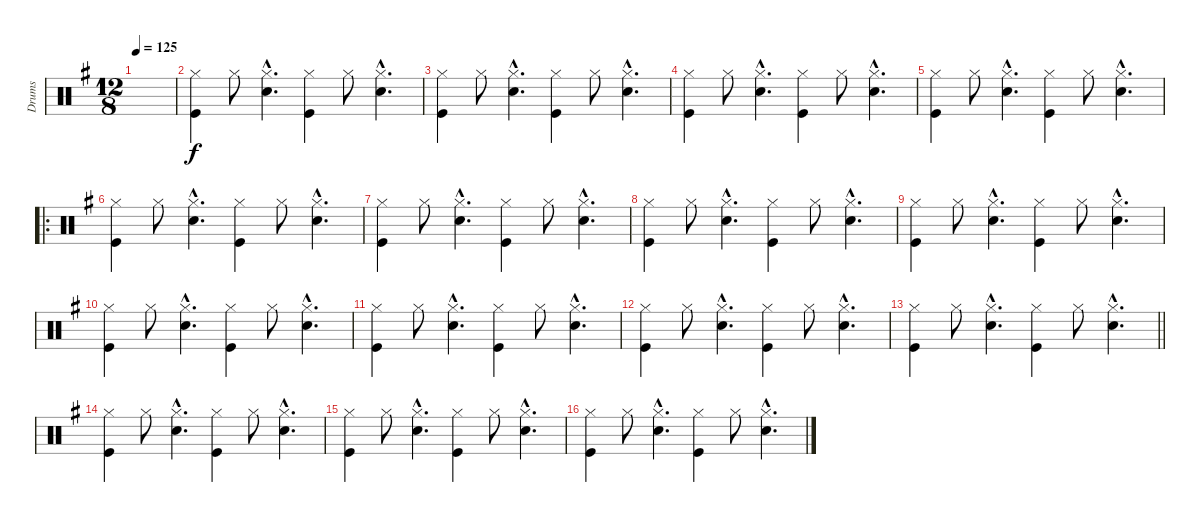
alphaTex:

\track ("Drums" "Drums") {instrument percussion}
\staff {score}
\articulation defaults
\ts (12 8)
\tempo 125
\clef neutral
\ks g
|
("Hi-Hat (closed)" "Kick (hit)").4 "Hi-Hat (closed)".8 ("Hi-Hat (closed)"{hac} "Snare (hit) 2"{hac}).4{d} ("Hi-Hat (closed)" "Kick (hit)").4 "Hi-Hat (closed)".8 ("Hi-Hat (closed)"{hac} "Snare (hit) 2"{hac}).4{d} |
("Hi-Hat (closed)" "Kick (hit)").4 "Hi-Hat (closed)".8 ("Hi-Hat (closed)"{hac} "Snare (hit) 2"{hac}).4{d} ("Hi-Hat (closed)" "Kick (hit)").4 "Hi-Hat (closed)".8 ("Hi-Hat (closed)"{hac} "Snare (hit) 2"{hac}).4{d} |
("Hi-Hat (closed)" "Kick (hit)").4 "Hi-Hat (closed)".8 ("Hi-Hat (closed)"{hac} "Snare (hit) 2"{hac}).4{d} ("Hi-Hat (closed)" "Kick (hit)").4 "Hi-Hat (closed)".8 ("Hi-Hat (closed)"{hac} "Snare (hit) 2"{hac}).4{d} |
("Hi-Hat (closed)" "Kick (hit)").4 "Hi-Hat (closed)".8 ("Hi-Hat (closed)"{hac} "Snare (hit) 2"{hac}).4{d} ("Hi-Hat (closed)" "Kick (hit)").4 "Hi-Hat (closed)".8 ("Hi-Hat (closed)"{hac} "Snare (hit) 2"{hac}).4{d} |
\ro
("Hi-Hat (closed)" "Kick (hit)").4 "Hi-Hat (closed)".8 ("Hi-Hat (closed)"{hac} "Snare (hit) 2"{hac}).4{d} ("Hi-Hat (closed)" "Kick (hit)").4 "Hi-Hat (closed)".8 ("Hi-Hat (closed)"{hac} "Snare (hit) 2"{hac}).4{d} |
("Hi-Hat (closed)" "Kick (hit)").4 "Hi-Hat (closed)".8 ("Hi-Hat (closed)"{hac} "Snare (hit) 2"{hac}).4{d} ("Hi-Hat (closed)" "Kick (hit)").4 "Hi-Hat (closed)".8 ("Hi-Hat (closed)"{hac} "Snare (hit) 2"{hac}).4{d} |
("Hi-Hat (closed)" "Kick (hit)").4 "Hi-Hat (closed)".8 ("Hi-Hat (closed)"{hac} "Snare (hit) 2"{hac}).4{d} ("Hi-Hat (closed)" "Kick (hit)").4 "Hi-Hat (closed)".8 ("Hi-Hat (closed)"{hac} "Snare (hit) 2"{hac}).4{d} |
("Hi-Hat (closed)" "Kick (hit)").4 "Hi-Hat (closed)".8 ("Hi-Hat (closed)"{hac} "Snare (hit) 2"{hac}).4{d} ("Hi-Hat (closed)" "Kick (hit)").4 "Hi-Hat (closed)".8 ("Hi-Hat (closed)"{hac} "Snare (hit) 2"{hac}).4{d} |
("Hi-Hat (closed)" "Kick (hit)").4 "Hi-Hat (closed)".8 ("Hi-Hat (closed)"{hac} "Snare (hit) 2"{hac}).4{d} ("Hi-Hat (closed)" "Kick (hit)").4 "Hi-Hat (closed)".8 ("Hi-Hat (closed)"{hac} "Snare (hit) 2"{hac}).4{d} |
("Hi-Hat (closed)" "Kick (hit)").4 "Hi-Hat (closed)".8 ("Hi-Hat (closed)"{hac} "Snare (hit) 2"{hac}).4{d} ("Hi-Hat (closed)" "Kick (hit)").4 "Hi-Hat (closed)".8 ("Hi-Hat (closed)"{hac} "Snare (hit) 2"{hac}).4{d} |
("Hi-Hat (closed)" "Kick (hit)").4 "Hi-Hat (closed)".8 ("Hi-Hat (closed)"{hac} "Snare (hit) 2"{hac}).4{d} ("Hi-Hat (closed)" "Kick (hit)").4 "Hi-Hat (closed)".8 ("Hi-Hat (closed)"{hac} "Snare (hit) 2"{hac}).4{d} |
\barLineRight lightlight
("Hi-Hat (closed)" "Kick (hit)").4 "Hi-Hat (closed)".8 ("Hi-Hat (closed)"{hac} "Snare (hit) 2"{hac}).4{d} ("Hi-Hat (closed)" "Kick (hit)").4 "Hi-Hat (closed)".8 ("Hi-Hat (closed)"{hac} "Snare (hit) 2"{hac}).4{d} |
("Hi-Hat (closed)" "Kick (hit)").4 "Hi-Hat (closed)".8 ("Hi-Hat (closed)"{hac} "Snare (hit) 2"{hac}).4{d} ("Hi-Hat (closed)" "Kick (hit)").4 "Hi-Hat (closed)".8 ("Hi-Hat (closed)"{hac} "Snare (hit) 2"{hac}).4{d} |
("Hi-Hat (closed)" "Kick (hit)").4 "Hi-Hat (closed)".8 ("Hi-Hat (closed)"{hac} "Snare (hit) 2"{hac}).4{d} ("Hi-Hat (closed)" "Kick (hit)").4 "Hi-Hat (closed)".8 ("Hi-Hat (closed)"{hac} "Snare (hit) 2"{hac}).4{d} |
("Hi-Hat (closed)" "Kick (hit)").4 "Hi-Hat (closed)".8 ("Hi-Hat (closed)"{hac} "Snare (hit) 2"{hac}).4{d} ("Hi-Hat (closed)" "Kick (hit)").4 "Hi-Hat (closed)".8 ("Hi-Hat (closed)"{hac} "Snare (hit) 2"{hac}).4{d}
